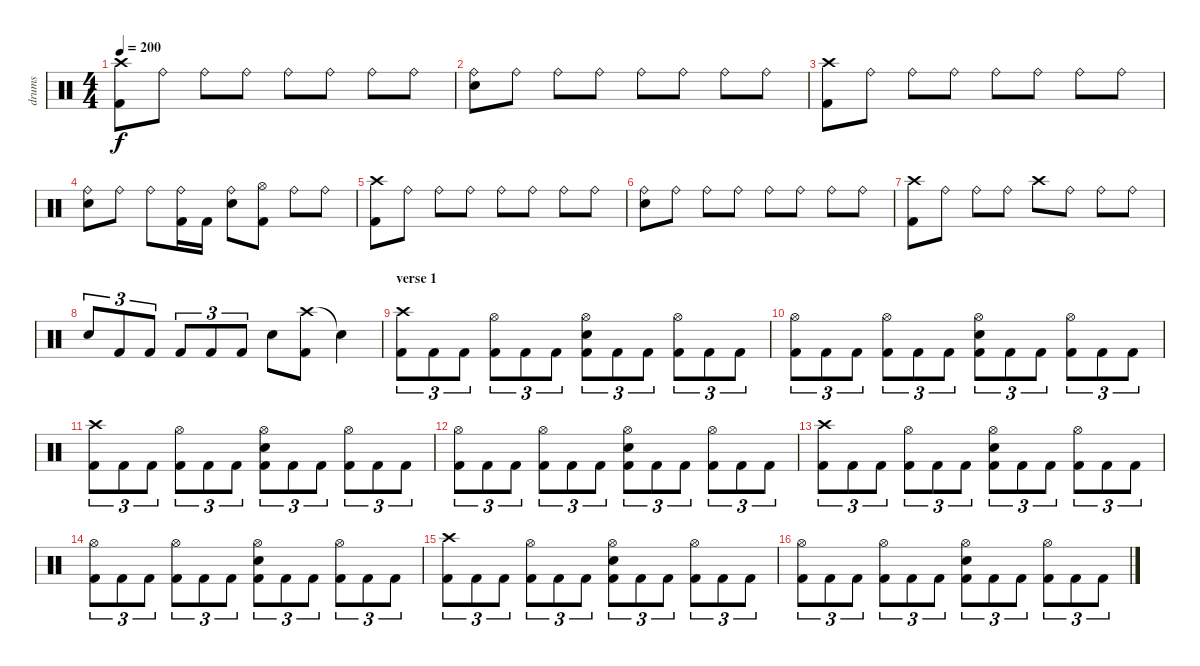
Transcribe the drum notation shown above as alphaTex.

\track ("drums" "drums") {instrument percussion}
\staff {score}
\articulation defaults
\ts (4 4)
\tempo 200
\clef neutral
\ks c
("Crash high (hit)" "Kick (hit) 2").8{dy f} "Ride (bell)".8 "Ride (bell)".8 "Ride (bell)".8 "Ride (bell)".8 "Ride (bell)".8 "Ride (bell)".8 "Ride (bell)".8 |
("Ride (bell)" "Electric Snare (hit)").8 "Ride (bell)".8 "Ride (bell)".8 "Ride (bell)".8 "Ride (bell)".8 "Ride (bell)".8 "Ride (bell)".8 "Ride (bell)".8 |
("Crash high (hit)" "Kick (hit) 2").8 "Ride (bell)".8 "Ride (bell)".8 "Ride (bell)".8 "Ride (bell)".8 "Ride (bell)".8 "Ride (bell)".8 "Ride (bell)".8 |
("Ride (bell)" "Electric Snare (hit)").8 "Ride (bell)".8 "Ride (bell)".8 ("Ride (bell)" "Kick (hit) 2").16 "Kick (hit) 2".16 ("Ride (bell)" "Electric Snare (hit)").8 ("Hi-Hat (open)" "Kick (hit) 2").8 "Ride (bell)".8 "Ride (bell)".8 |
("Crash high (hit)" "Kick (hit) 2").8 "Ride (bell)".8 "Ride (bell)".8 "Ride (bell)".8 "Ride (bell)".8 "Ride (bell)".8 "Ride (bell)".8 "Ride (bell)".8 |
("Ride (bell)" "Electric Snare (hit)").8 "Ride (bell)".8 "Ride (bell)".8 "Ride (bell)".8 "Ride (bell)".8 "Ride (bell)".8 "Ride (bell)".8 "Ride (bell)".8 |
("Crash high (hit)" "Kick (hit) 2").8 "Ride (bell)".8 "Ride (bell)".8 "Ride (bell)".8 "Crash high (hit)".8 "Ride (bell)".8 "Ride (bell)".8 "Ride (bell)".8 |
"Electric Snare (hit)".8{tu (3 2)} "Kick (hit) 2".8{tu (3 2)} "Kick (hit) 2".8{tu (3 2)} "Kick (hit) 2".8{tu (3 2)} "Kick (hit) 2".8{tu (3 2)} "Kick (hit) 2".8{tu (3 2)} "Electric Snare (hit)".8 ("Crash high (hit)" "Kick (hit) 2").8 "Snare (hit)"{t}.4 |
\section ("" "verse 1")
("Crash high (hit)" "Kick (hit) 2").8{tu (3 2)} "Kick (hit) 2".8{tu (3 2)} "Kick (hit) 2".8{tu (3 2)} ("Hi-Hat (open)" "Kick (hit) 2").8{tu (3 2)} "Kick (hit) 2".8{tu (3 2)} "Kick (hit) 2".8{tu (3 2)} ("Hi-Hat (open)" "Electric Snare (hit)" "Kick (hit) 2").8{tu (3 2)} "Kick (hit) 2".8{tu (3 2)} "Kick (hit) 2".8{tu (3 2)} ("Hi-Hat (open)" "Kick (hit) 2").8{tu (3 2)} "Kick (hit) 2".8{tu (3 2)} "Kick (hit) 2".8{tu (3 2)} |
("Hi-Hat (open)" "Kick (hit) 2").8{tu (3 2)} "Kick (hit) 2".8{tu (3 2)} "Kick (hit) 2".8{tu (3 2)} ("Hi-Hat (open)" "Kick (hit) 2").8{tu (3 2)} "Kick (hit) 2".8{tu (3 2)} "Kick (hit) 2".8{tu (3 2)} ("Hi-Hat (open)" "Electric Snare (hit)" "Kick (hit) 2").8{tu (3 2)} "Kick (hit) 2".8{tu (3 2)} "Kick (hit) 2".8{tu (3 2)} ("Hi-Hat (open)" "Kick (hit) 2").8{tu (3 2)} "Kick (hit) 2".8{tu (3 2)} "Kick (hit) 2".8{tu (3 2)} |
("Crash high (hit)" "Kick (hit) 2").8{tu (3 2)} "Kick (hit) 2".8{tu (3 2)} "Kick (hit) 2".8{tu (3 2)} ("Hi-Hat (open)" "Kick (hit) 2").8{tu (3 2)} "Kick (hit) 2".8{tu (3 2)} "Kick (hit) 2".8{tu (3 2)} ("Hi-Hat (open)" "Electric Snare (hit)" "Kick (hit) 2").8{tu (3 2)} "Kick (hit) 2".8{tu (3 2)} "Kick (hit) 2".8{tu (3 2)} ("Hi-Hat (open)" "Kick (hit) 2").8{tu (3 2)} "Kick (hit) 2".8{tu (3 2)} "Kick (hit) 2".8{tu (3 2)} |
("Hi-Hat (open)" "Kick (hit) 2").8{tu (3 2)} "Kick (hit) 2".8{tu (3 2)} "Kick (hit) 2".8{tu (3 2)} ("Hi-Hat (open)" "Kick (hit) 2").8{tu (3 2)} "Kick (hit) 2".8{tu (3 2)} "Kick (hit) 2".8{tu (3 2)} ("Hi-Hat (open)" "Electric Snare (hit)" "Kick (hit) 2").8{tu (3 2)} "Kick (hit) 2".8{tu (3 2)} "Kick (hit) 2".8{tu (3 2)} ("Hi-Hat (open)" "Kick (hit) 2").8{tu (3 2)} "Kick (hit) 2".8{tu (3 2)} "Kick (hit) 2".8{tu (3 2)} |
("Crash high (hit)" "Kick (hit) 2").8{tu (3 2)} "Kick (hit) 2".8{tu (3 2)} "Kick (hit) 2".8{tu (3 2)} ("Hi-Hat (open)" "Kick (hit) 2").8{tu (3 2)} "Kick (hit) 2".8{tu (3 2)} "Kick (hit) 2".8{tu (3 2)} ("Hi-Hat (open)" "Electric Snare (hit)" "Kick (hit) 2").8{tu (3 2)} "Kick (hit) 2".8{tu (3 2)} "Kick (hit) 2".8{tu (3 2)} ("Hi-Hat (open)" "Kick (hit) 2").8{tu (3 2)} "Kick (hit) 2".8{tu (3 2)} "Kick (hit) 2".8{tu (3 2)} |
("Hi-Hat (open)" "Kick (hit) 2").8{tu (3 2)} "Kick (hit) 2".8{tu (3 2)} "Kick (hit) 2".8{tu (3 2)} ("Hi-Hat (open)" "Kick (hit) 2").8{tu (3 2)} "Kick (hit) 2".8{tu (3 2)} "Kick (hit) 2".8{tu (3 2)} ("Hi-Hat (open)" "Electric Snare (hit)" "Kick (hit) 2").8{tu (3 2)} "Kick (hit) 2".8{tu (3 2)} "Kick (hit) 2".8{tu (3 2)} ("Hi-Hat (open)" "Kick (hit) 2").8{tu (3 2)} "Kick (hit) 2".8{tu (3 2)} "Kick (hit) 2".8{tu (3 2)} |
("Crash high (hit)" "Kick (hit) 2").8{tu (3 2)} "Kick (hit) 2".8{tu (3 2)} "Kick (hit) 2".8{tu (3 2)} ("Hi-Hat (open)" "Kick (hit) 2").8{tu (3 2)} "Kick (hit) 2".8{tu (3 2)} "Kick (hit) 2".8{tu (3 2)} ("Hi-Hat (open)" "Electric Snare (hit)" "Kick (hit) 2").8{tu (3 2)} "Kick (hit) 2".8{tu (3 2)} "Kick (hit) 2".8{tu (3 2)} ("Hi-Hat (open)" "Kick (hit) 2").8{tu (3 2)} "Kick (hit) 2".8{tu (3 2)} "Kick (hit) 2".8{tu (3 2)} |
("Hi-Hat (open)" "Kick (hit) 2").8{tu (3 2)} "Kick (hit) 2".8{tu (3 2)} "Kick (hit) 2".8{tu (3 2)} ("Hi-Hat (open)" "Kick (hit) 2").8{tu (3 2)} "Kick (hit) 2".8{tu (3 2)} "Kick (hit) 2".8{tu (3 2)} ("Hi-Hat (open)" "Electric Snare (hit)" "Kick (hit) 2").8{tu (3 2)} "Kick (hit) 2".8{tu (3 2)} "Kick (hit) 2".8{tu (3 2)} ("Hi-Hat (open)" "Kick (hit) 2").8{tu (3 2)} "Kick (hit) 2".8{tu (3 2)} "Kick (hit) 2".8{tu (3 2)}
